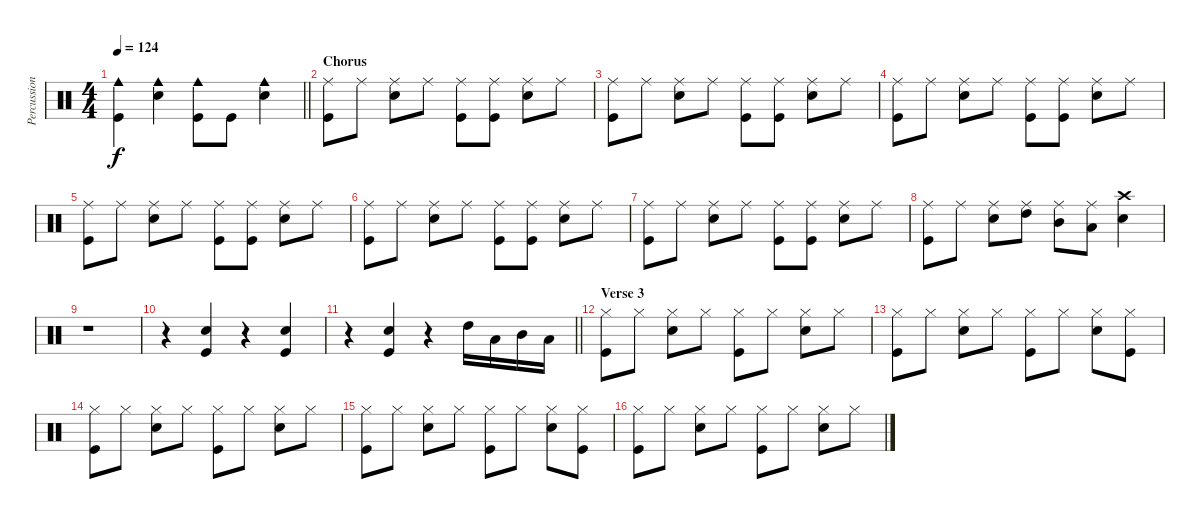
\track ("Percussion" "Percussion") {instrument percussion}
\staff {score}
\articulation defaults
\ts (4 4)
\tempo 124
\clef neutral
\barLineRight lightlight
\ks c
("Cowbell medium (hit)" "Kick (hit)").4{dy f} ("Cowbell medium (hit)" "Electric Snare (hit)").4 ("Cowbell medium (hit)" "Kick (hit)").8 "Kick (hit)".8 ("Cowbell medium (hit)" "Electric Snare (hit)").4 |
\section ("" "Chorus")
("Ride (middle)" "Kick (hit)").8 "Ride (middle)".8 ("Ride (middle)" "Electric Snare (hit)").8 "Ride (middle)".8 ("Ride (middle)" "Kick (hit)").8 ("Ride (middle)" "Kick (hit)").8 ("Ride (middle)" "Electric Snare (hit)").8 "Ride (middle)".8 |
("Ride (middle)" "Kick (hit)").8 "Ride (middle)".8 ("Ride (middle)" "Electric Snare (hit)").8 "Ride (middle)".8 ("Ride (middle)" "Kick (hit)").8 ("Ride (middle)" "Kick (hit)").8 ("Ride (middle)" "Electric Snare (hit)").8 "Ride (middle)".8 |
("Ride (middle)" "Kick (hit)").8 "Ride (middle)".8 ("Ride (middle)" "Electric Snare (hit)").8 "Ride (middle)".8 ("Ride (middle)" "Kick (hit)").8 ("Ride (middle)" "Kick (hit)").8 ("Ride (middle)" "Electric Snare (hit)").8 "Ride (middle)".8 |
("Ride (middle)" "Kick (hit)").8 "Ride (middle)".8 ("Ride (middle)" "Electric Snare (hit)").8 "Ride (middle)".8 ("Ride (middle)" "Kick (hit)").8 ("Ride (middle)" "Kick (hit)").8 ("Ride (middle)" "Electric Snare (hit)").8 "Ride (middle)".8 |
("Ride (middle)" "Kick (hit)").8 "Ride (middle)".8 ("Ride (middle)" "Electric Snare (hit)").8 "Ride (middle)".8 ("Ride (middle)" "Kick (hit)").8 ("Ride (middle)" "Kick (hit)").8 ("Ride (middle)" "Electric Snare (hit)").8 "Ride (middle)".8 |
("Ride (middle)" "Kick (hit)").8 "Ride (middle)".8 ("Ride (middle)" "Electric Snare (hit)").8 "Ride (middle)".8 ("Ride (middle)" "Kick (hit)").8 ("Ride (middle)" "Kick (hit)").8 ("Ride (middle)" "Electric Snare (hit)").8 "Ride (middle)".8 |
("Ride (middle)" "Kick (hit)").8 "Ride (middle)".8 ("Ride (middle)" "Electric Snare (hit)").8 ("Ride (middle)" "High Tom (hit)").8 ("Ride (middle)" "Mid Tom (hit)").8 ("Ride (middle)" "Low Tom (hit)").8 ("Crash high (hit)" "Electric Snare (hit)").4 |
r.1 |
r.4 ("Electric Snare (hit)" "Kick (hit)").4 r.4 ("Electric Snare (hit)" "Kick (hit)").4 |
\barLineRight lightlight
r.4 ("Electric Snare (hit)" "Kick (hit)").4 r.4 "High Tom (hit)".16 "Low Tom (hit)".16 "Mid Tom (hit)".16 "Low Floor Tom (hit)".16 |
\section ("" "Verse 3")
("Hi-Hat (closed)" "Kick (hit)").8 "Hi-Hat (closed)".8 ("Hi-Hat (closed)" "Electric Snare (hit)").8 "Hi-Hat (closed)".8 ("Hi-Hat (closed)" "Kick (hit)").8 "Hi-Hat (closed)".8 ("Hi-Hat (closed)" "Electric Snare (hit)").8 "Hi-Hat (closed)".8 |
("Hi-Hat (closed)" "Kick (hit)").8 "Hi-Hat (closed)".8 ("Hi-Hat (closed)" "Electric Snare (hit)").8 "Hi-Hat (closed)".8 ("Hi-Hat (closed)" "Kick (hit)").8 "Hi-Hat (closed)".8 ("Hi-Hat (closed)" "Electric Snare (hit)").8 ("Hi-Hat (closed)" "Kick (hit)").8 |
("Hi-Hat (closed)" "Kick (hit)").8 "Hi-Hat (closed)".8 ("Hi-Hat (closed)" "Electric Snare (hit)").8 "Hi-Hat (closed)".8 ("Hi-Hat (closed)" "Kick (hit)").8 "Hi-Hat (closed)".8 ("Hi-Hat (closed)" "Electric Snare (hit)").8 "Hi-Hat (closed)".8 |
("Hi-Hat (closed)" "Kick (hit)").8 "Hi-Hat (closed)".8 ("Hi-Hat (closed)" "Electric Snare (hit)").8 "Hi-Hat (closed)".8 ("Hi-Hat (closed)" "Kick (hit)").8 "Hi-Hat (closed)".8 ("Hi-Hat (closed)" "Electric Snare (hit)").8 ("Hi-Hat (closed)" "Kick (hit)").8 |
("Hi-Hat (closed)" "Kick (hit)").8 "Hi-Hat (closed)".8 ("Hi-Hat (closed)" "Electric Snare (hit)").8 "Hi-Hat (closed)".8 ("Hi-Hat (closed)" "Kick (hit)").8 "Hi-Hat (closed)".8 ("Hi-Hat (closed)" "Electric Snare (hit)").8 "Hi-Hat (closed)".8
